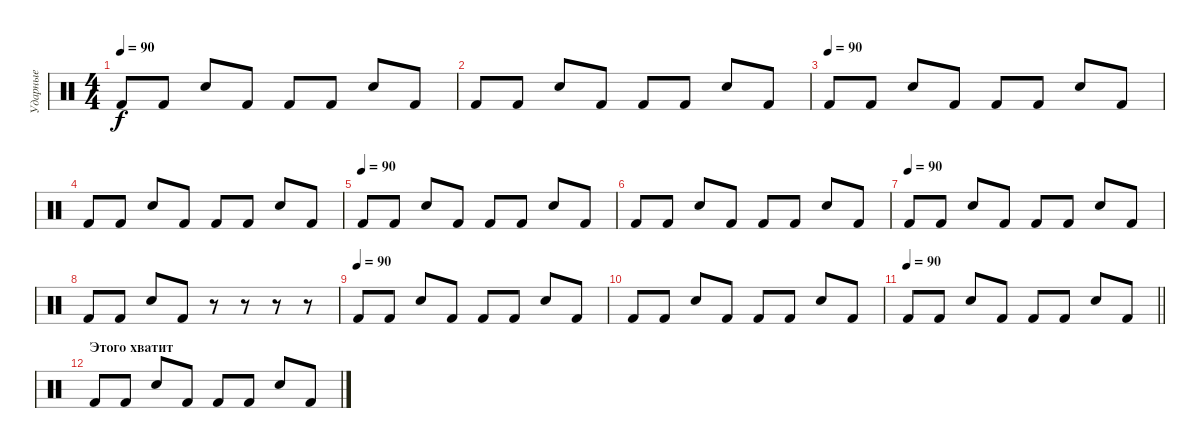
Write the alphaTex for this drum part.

\track ("Ударные" "Ударные") {instrument percussion}
\staff {score}
\articulation defaults
\ts (4 4)
\tempo 90
\clef neutral
\ks c "Kick (hit) 2".8{dy f} "Kick (hit) 2".8 "Snare (hit) 2".8 "Kick (hit) 2".8 "Kick (hit) 2".8 "Kick (hit) 2".8 "Snare (hit) 2".8 "Kick (hit) 2".8
|
"Kick (hit) 2".8 "Kick (hit) 2".8 "Snare (hit) 2".8 "Kick (hit) 2".8 "Kick (hit) 2".8 "Kick (hit) 2".8 "Snare (hit) 2".8 "Kick (hit) 2".8 |
\tempo (90)
"Kick (hit) 2".8 "Kick (hit) 2".8 "Snare (hit) 2".8 "Kick (hit) 2".8 "Kick (hit) 2".8 "Kick (hit) 2".8 "Snare (hit) 2".8 "Kick (hit) 2".8 |
"Kick (hit) 2".8 "Kick (hit) 2".8 "Snare (hit) 2".8 "Kick (hit) 2".8 "Kick (hit) 2".8 "Kick (hit) 2".8 "Snare (hit) 2".8 "Kick (hit) 2".8 |
\tempo (90)
"Kick (hit) 2".8 "Kick (hit) 2".8 "Snare (hit) 2".8 "Kick (hit) 2".8 "Kick (hit) 2".8 "Kick (hit) 2".8 "Snare (hit) 2".8 "Kick (hit) 2".8 |
"Kick (hit) 2".8 "Kick (hit) 2".8 "Snare (hit) 2".8 "Kick (hit) 2".8 "Kick (hit) 2".8 "Kick (hit) 2".8 "Snare (hit) 2".8 "Kick (hit) 2".8 |
\tempo (90)
"Kick (hit) 2".8 "Kick (hit) 2".8 "Snare (hit) 2".8 "Kick (hit) 2".8 "Kick (hit) 2".8 "Kick (hit) 2".8 "Snare (hit) 2".8 "Kick (hit) 2".8 |
"Kick (hit) 2".8 "Kick (hit) 2".8 "Snare (hit) 2".8 "Kick (hit) 2".8 r.8 r.8 r.8 r.8 |
\tempo (90)
"Kick (hit) 2".8 "Kick (hit) 2".8 "Snare (hit) 2".8 "Kick (hit) 2".8 "Kick (hit) 2".8 "Kick (hit) 2".8 "Snare (hit) 2".8 "Kick (hit) 2".8 |
"Kick (hit) 2".8 "Kick (hit) 2".8 "Snare (hit) 2".8 "Kick (hit) 2".8 "Kick (hit) 2".8 "Kick (hit) 2".8 "Snare (hit) 2".8 "Kick (hit) 2".8 |
\tempo 90
\barLineRight lightlight "Kick (hit) 2".8 "Kick (hit) 2".8 "Snare (hit) 2".8 "Kick (hit) 2".8 "Kick (hit) 2".8 "Kick (hit) 2".8 "Snare (hit) 2".8 "Kick (hit) 2".8
|
\section ("" "Этого хватит")
"Kick (hit) 2".8 "Kick (hit) 2".8 "Snare (hit) 2".8 "Kick (hit) 2".8 "Kick (hit) 2".8 "Kick (hit) 2".8 "Snare (hit) 2".8 "Kick (hit) 2".8
